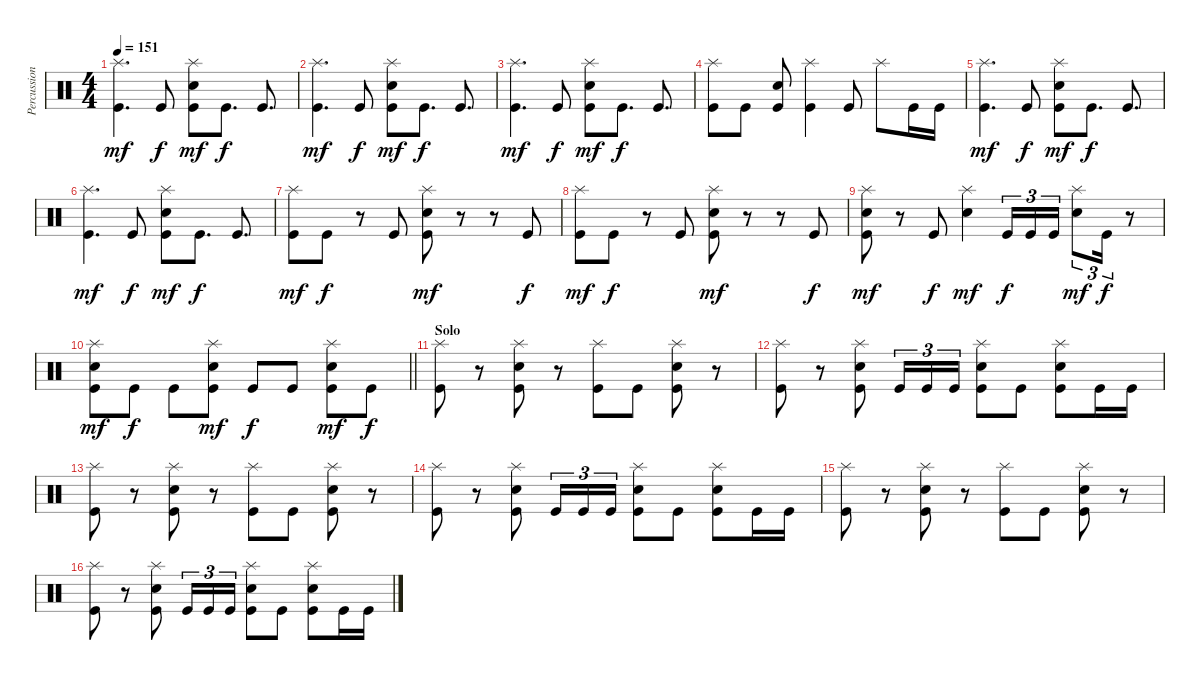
\track ("Percussion" "Percussion") {instrument percussion}
\staff {score}
\articulation defaults
\ts (4 4)
\tempo 151
\clef neutral
\ks c
("Splash (hit)" "Kick (hit)").4{d dy mf} "Kick (hit)".8{dy f} ("Splash (hit)" "Snare (hit) 2" "Kick (hit)").8{dy mf} "Kick (hit)".8{d dy f} "Kick (hit)".8{d} |
("Splash (hit)" "Kick (hit)").4{d dy mf} "Kick (hit)".8{dy f} ("Splash (hit)" "Snare (hit) 2" "Kick (hit)").8{dy mf} "Kick (hit)".8{d dy f} "Kick (hit)".8{d} |
("Splash (hit)" "Kick (hit)").4{d dy mf} "Kick (hit)".8{dy f} ("Splash (hit)" "Snare (hit) 2" "Kick (hit)").8{dy mf} "Kick (hit)".8{d dy f} "Kick (hit)".8{d} |
("Splash (hit)" "Kick (hit)").8 "Kick (hit)".8 ("Snare (hit) 2" "Kick (hit)").8 ("Splash (hit)" "Kick (hit)").4 "Kick (hit)".8 "Splash (hit)".8 "Kick (hit)".16 "Kick (hit)".16 |
("Splash (hit)" "Kick (hit)").4{d dy mf} "Kick (hit)".8{dy f} ("Splash (hit)" "Snare (hit) 2" "Kick (hit)").8{dy mf} "Kick (hit)".8{d dy f} "Kick (hit)".8{d} |
("Splash (hit)" "Kick (hit)").4{d dy mf} "Kick (hit)".8{dy f} ("Splash (hit)" "Snare (hit) 2" "Kick (hit)").8{dy mf} "Kick (hit)".8{d dy f} "Kick (hit)".8{d} |
("Splash (hit)" "Kick (hit)").8{dy mf} "Kick (hit)".8{dy f} r.8 "Kick (hit)".8 ("Splash (hit)" "Snare (hit) 2" "Kick (hit)").8{dy mf} r.8 r.8 "Kick (hit)".8{dy f} |
("Splash (hit)" "Kick (hit)").8{dy mf} "Kick (hit)".8{dy f} r.8 "Kick (hit)".8 ("Splash (hit)" "Snare (hit) 2" "Kick (hit)").8{dy mf} r.8 r.8 "Kick (hit)".8{dy f} |
("Splash (hit)" "Snare (hit) 2" "Kick (hit)").8{dy mf} r.8 "Kick (hit)".8{dy f} ("Splash (hit)" "Snare (hit) 2").4{dy mf} "Kick (hit)".16{tu (3 2) dy f} "Kick (hit)".16{tu (3 2)} "Kick (hit)".16{tu (3 2)} ("Splash (hit)" "Snare (hit) 2").8{tu (3 2) dy mf} "Kick (hit)".16{tu (3 2) dy f} r.8 |
\barLineRight lightlight
("Splash (hit)" "Snare (hit) 2" "Kick (hit)").8{dy mf} "Kick (hit)".8{dy f} "Kick (hit)".8 ("Splash (hit)" "Snare (hit) 2" "Kick (hit)").8{dy mf} "Kick (hit)".8{dy f} "Kick (hit)".8 ("Splash (hit)" "Snare (hit) 2" "Kick (hit)").8{dy mf} "Kick (hit)".8{dy f} |
\section ("" "Solo")
("Splash (hit)" "Kick (hit)").8 r.8 ("Splash (hit)" "Snare (hit) 2" "Kick (hit)").8 r.8 ("Splash (hit)" "Kick (hit)").8 "Kick (hit)".8 ("Splash (hit)" "Snare (hit) 2" "Kick (hit)").8 r.8 |
("Splash (hit)" "Kick (hit)").8 r.8 ("Splash (hit)" "Snare (hit) 2" "Kick (hit)").8 "Kick (hit)".16{tu (3 2)} "Kick (hit)".16{tu (3 2)} "Kick (hit)".16{tu (3 2)} ("Splash (hit)" "Snare (hit) 2" "Kick (hit)").8 "Kick (hit)".8 ("Splash (hit)" "Snare (hit) 2" "Kick (hit)").8 "Kick (hit)".16 "Kick (hit)".16 |
("Splash (hit)" "Kick (hit)").8 r.8 ("Splash (hit)" "Snare (hit) 2" "Kick (hit)").8 r.8 ("Splash (hit)" "Kick (hit)").8 "Kick (hit)".8 ("Splash (hit)" "Snare (hit) 2" "Kick (hit)").8 r.8 |
("Splash (hit)" "Kick (hit)").8 r.8 ("Splash (hit)" "Snare (hit) 2" "Kick (hit)").8 "Kick (hit)".16{tu (3 2)} "Kick (hit)".16{tu (3 2)} "Kick (hit)".16{tu (3 2)} ("Splash (hit)" "Snare (hit) 2" "Kick (hit)").8 "Kick (hit)".8 ("Splash (hit)" "Snare (hit) 2" "Kick (hit)").8 "Kick (hit)".16 "Kick (hit)".16 |
("Splash (hit)" "Kick (hit)").8 r.8 ("Splash (hit)" "Snare (hit) 2" "Kick (hit)").8 r.8 ("Splash (hit)" "Kick (hit)").8 "Kick (hit)".8 ("Splash (hit)" "Snare (hit) 2" "Kick (hit)").8 r.8 |
("Splash (hit)" "Kick (hit)").8 r.8 ("Splash (hit)" "Snare (hit) 2" "Kick (hit)").8 "Kick (hit)".16{tu (3 2)} "Kick (hit)".16{tu (3 2)} "Kick (hit)".16{tu (3 2)} ("Splash (hit)" "Snare (hit) 2" "Kick (hit)").8 "Kick (hit)".8 ("Splash (hit)" "Snare (hit) 2" "Kick (hit)").8 "Kick (hit)".16 "Kick (hit)".16
